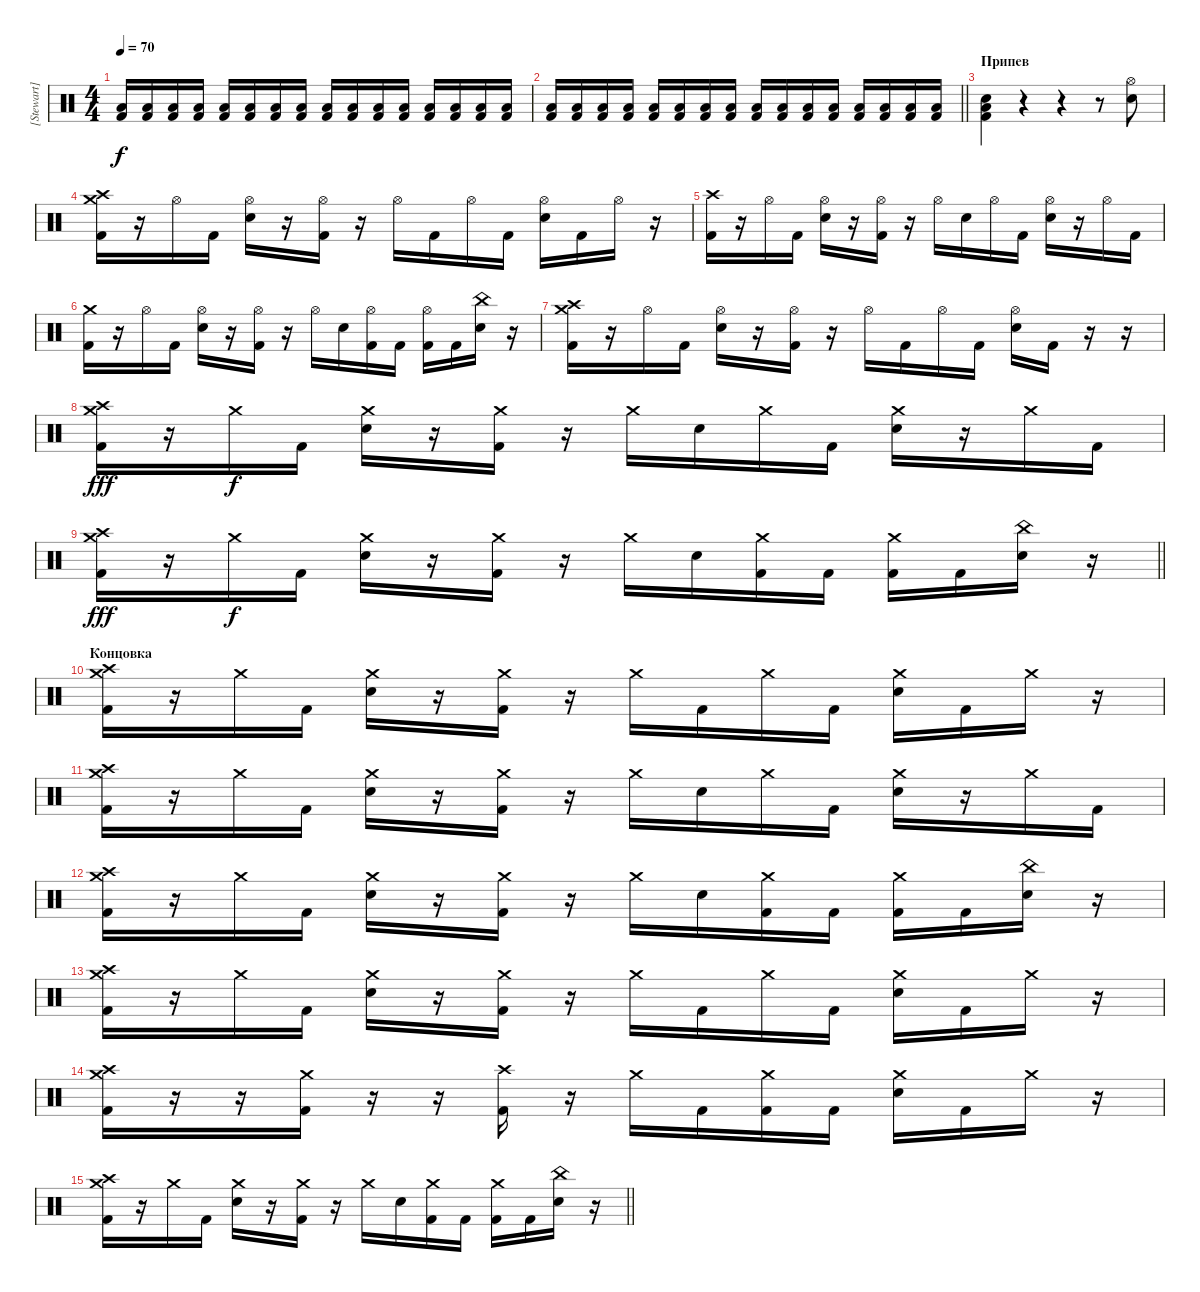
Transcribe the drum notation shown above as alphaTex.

\track ("[Stewart]" "[Stewart]") {instrument percussion}
\staff {score}
\articulation defaults
\ts (4 4)
\tempo 70
\clef neutral
\ks c
("Low Tom (hit)" "Kick (hit) 2").16{dy f} ("Low Tom (hit)" "Kick (hit) 2").16 ("Low Tom (hit)" "Kick (hit) 2").16 ("Low Tom (hit)" "Kick (hit) 2").16 ("Low Tom (hit)" "Kick (hit) 2").16 ("Low Tom (hit)" "Kick (hit) 2").16 ("Low Tom (hit)" "Kick (hit) 2").16 ("Low Tom (hit)" "Kick (hit) 2").16 ("Low Tom (hit)" "Kick (hit) 2").16 ("Low Tom (hit)" "Kick (hit) 2").16 ("Low Tom (hit)" "Kick (hit) 2").16 ("Low Tom (hit)" "Kick (hit) 2").16 ("Low Tom (hit)" "Kick (hit) 2").16 ("Low Tom (hit)" "Kick (hit) 2").16 ("Low Tom (hit)" "Kick (hit) 2").16 ("Low Tom (hit)" "Kick (hit) 2").16 |
\barLineRight lightlight
("Low Tom (hit)" "Kick (hit) 2").16 ("Low Tom (hit)" "Kick (hit) 2").16 ("Low Tom (hit)" "Kick (hit) 2").16 ("Low Tom (hit)" "Kick (hit) 2").16 ("Low Tom (hit)" "Kick (hit) 2").16 ("Low Tom (hit)" "Kick (hit) 2").16 ("Low Tom (hit)" "Kick (hit) 2").16 ("Low Tom (hit)" "Kick (hit) 2").16 ("Low Tom (hit)" "Kick (hit) 2").16 ("Low Tom (hit)" "Kick (hit) 2").16 ("Low Tom (hit)" "Kick (hit) 2").16 ("Low Tom (hit)" "Kick (hit) 2").16 ("Low Tom (hit)" "Kick (hit) 2").16 ("Low Tom (hit)" "Kick (hit) 2").16 ("Low Tom (hit)" "Kick (hit) 2").16 ("Low Tom (hit)" "Kick (hit) 2").16 |
\section ("" "Припев")
("Electric Snare (hit)" "Low Tom (hit)" "Kick (hit) 2").4 r.4 r.4 r.8 ("Hi-Hat (open)" "Electric Snare (hit)").8 |
("Crash medium (hit)" "Crash high (hit)" "Kick (hit) 2").16 r.16 "Hi-Hat (open)".16 "Kick (hit) 2".16 ("Hi-Hat (open)" "Electric Snare (hit)").16 r.16 ("Hi-Hat (open)" "Kick (hit) 2").16 r.16 "Hi-Hat (open)".16 "Kick (hit) 2".16 "Hi-Hat (open)".16 "Kick (hit) 2".16 ("Hi-Hat (open)" "Electric Snare (hit)").16 "Kick (hit) 2".16 "Hi-Hat (open)".16 r.16 |
("Crash high (hit)" "Kick (hit) 2").16 r.16 "Hi-Hat (open)".16 "Kick (hit) 2".16 ("Hi-Hat (open)" "Electric Snare (hit)").16 r.16 ("Hi-Hat (open)" "Kick (hit) 2").16 r.16 "Hi-Hat (open)".16 "Electric Snare (hit)".16 "Hi-Hat (open)".16 "Kick (hit) 2".16 ("Hi-Hat (open)" "Electric Snare (hit)").16 r.16 "Hi-Hat (open)".16 "Kick (hit) 2".16 |
("Crash medium (hit)" "Kick (hit) 2").16 r.16 "Hi-Hat (open)".16 "Kick (hit) 2".16 ("Hi-Hat (open)" "Electric Snare (hit)").16 r.16 ("Hi-Hat (open)" "Kick (hit) 2").16 r.16 "Hi-Hat (open)".16 "Electric Snare (hit)".16 ("Hi-Hat (open)" "Kick (hit) 2").16 "Kick (hit) 2".16 ("Hi-Hat (open)" "Kick (hit) 2").16 "Kick (hit) 2".16 ("China (hit)" "Electric Snare (hit)").16 r.16 |
("Crash medium (hit)" "Crash high (hit)" "Kick (hit) 2").16 r.16 "Hi-Hat (open)".16 "Kick (hit) 2".16 ("Hi-Hat (open)" "Electric Snare (hit)").16 r.16 ("Hi-Hat (open)" "Kick (hit) 2").16 r.16 "Hi-Hat (open)".16 "Kick (hit) 2".16 "Hi-Hat (open)".16 "Kick (hit) 2".16 ("Hi-Hat (open)" "Electric Snare (hit)").16 "Kick (hit) 2".16 r.16 r.16 |
("Crash medium (hit)" "Crash high (hit)" "Kick (hit) 2").16{dy fff} r.16 "Crash medium (hit)".16{dy f} "Kick (hit) 2".16 ("Crash medium (hit)" "Electric Snare (hit)").16 r.16 ("Crash medium (hit)" "Kick (hit) 2").16 r.16 "Crash medium (hit)".16 "Electric Snare (hit)".16 "Crash medium (hit)".16 "Kick (hit) 2".16 ("Crash medium (hit)" "Electric Snare (hit)").16 r.16 "Crash medium (hit)".16 "Kick (hit) 2".16 |
\barLineRight lightlight
("Crash medium (hit)" "Crash high (hit)" "Kick (hit) 2").16{dy fff} r.16 "Crash medium (hit)".16{dy f} "Kick (hit) 2".16 ("Crash medium (hit)" "Electric Snare (hit)").16 r.16 ("Crash medium (hit)" "Kick (hit) 2").16 r.16 "Crash medium (hit)".16 "Electric Snare (hit)".16 ("Crash medium (hit)" "Kick (hit) 2").16 "Kick (hit) 2".16 ("Crash medium (hit)" "Kick (hit) 2").16 "Kick (hit) 2".16 ("China (hit)" "Electric Snare (hit)").16 r.16 |
\section ("" "Концовка")
("Crash medium (hit)" "Crash high (hit)" "Kick (hit) 2").16 r.16 "Crash medium (hit)".16 "Kick (hit) 2".16 ("Crash medium (hit)" "Electric Snare (hit)").16 r.16 ("Crash medium (hit)" "Kick (hit) 2").16 r.16 "Crash medium (hit)".16 "Kick (hit) 2".16 "Crash medium (hit)".16 "Kick (hit) 2".16 ("Crash medium (hit)" "Electric Snare (hit)").16 "Kick (hit) 2".16 "Crash medium (hit)".16 r.16 |
("Crash medium (hit)" "Crash high (hit)" "Kick (hit) 2").16 r.16 "Crash medium (hit)".16 "Kick (hit) 2".16 ("Crash medium (hit)" "Electric Snare (hit)").16 r.16 ("Crash medium (hit)" "Kick (hit) 2").16 r.16 "Crash medium (hit)".16 "Electric Snare (hit)".16 "Crash medium (hit)".16 "Kick (hit) 2".16 ("Crash medium (hit)" "Electric Snare (hit)").16 r.16 "Crash medium (hit)".16 "Kick (hit) 2".16 |
("Crash medium (hit)" "Crash high (hit)" "Kick (hit) 2").16 r.16 "Crash medium (hit)".16 "Kick (hit) 2".16 ("Crash medium (hit)" "Electric Snare (hit)").16 r.16 ("Crash medium (hit)" "Kick (hit) 2").16 r.16 "Crash medium (hit)".16 "Electric Snare (hit)".16 ("Crash medium (hit)" "Kick (hit) 2").16 "Kick (hit) 2".16 ("Crash medium (hit)" "Kick (hit) 2").16 "Kick (hit) 2".16 ("China (hit)" "Electric Snare (hit)").16 r.16 |
("Crash medium (hit)" "Crash high (hit)" "Kick (hit) 2").16 r.16 "Crash medium (hit)".16 "Kick (hit) 2".16 ("Crash medium (hit)" "Electric Snare (hit)").16 r.16 ("Crash medium (hit)" "Kick (hit) 2").16 r.16 "Crash medium (hit)".16 "Kick (hit) 2".16 "Crash medium (hit)".16 "Kick (hit) 2".16 ("Crash medium (hit)" "Electric Snare (hit)").16 "Kick (hit) 2".16 "Crash medium (hit)".16 r.16 |
("Crash medium (hit)" "Crash high (hit)" "Kick (hit) 2").16 r.16 r.16 ("Crash medium (hit)" "Kick (hit) 2").16 r.16 r.16 ("Crash high (hit)" "Kick (hit) 2").16 r.16 "Crash medium (hit)".16 "Kick (hit) 2".16 ("Crash medium (hit)" "Kick (hit) 2").16 "Kick (hit) 2".16 ("Crash medium (hit)" "Electric Snare (hit)").16 "Kick (hit) 2".16 "Crash medium (hit)".16 r.16 |
\barLineRight lightlight
("Crash medium (hit)" "Crash high (hit)" "Kick (hit) 2").16 r.16 "Crash medium (hit)".16 "Kick (hit) 2".16 ("Crash medium (hit)" "Electric Snare (hit)").16 r.16 ("Crash medium (hit)" "Kick (hit) 2").16 r.16 "Crash medium (hit)".16 "Electric Snare (hit)".16 ("Crash medium (hit)" "Kick (hit) 2").16 "Kick (hit) 2".16 ("Crash medium (hit)" "Kick (hit) 2").16 "Kick (hit) 2".16 ("China (hit)" "Electric Snare (hit)").16 r.16
